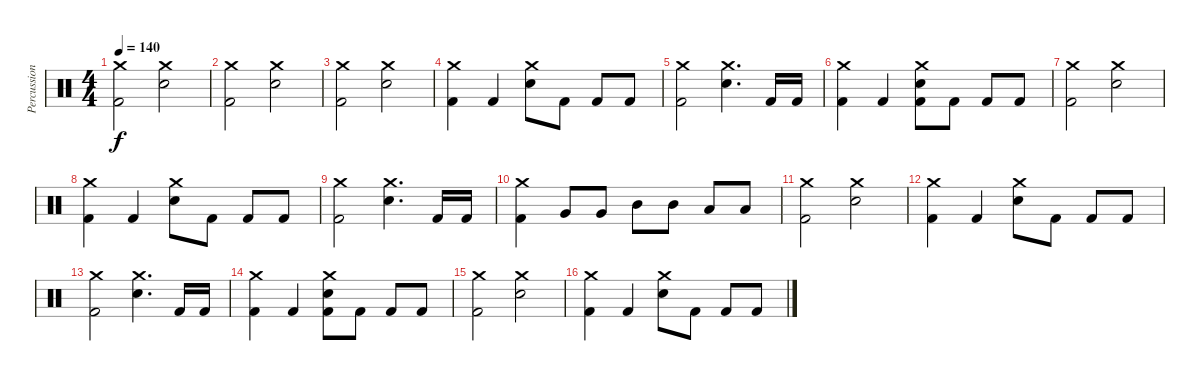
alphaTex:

\track ("Percussion" "Percussion") {instrument percussion}
\staff {score}
\articulation defaults
\ts (4 4)
\tempo 140
\clef neutral
\ks c
("Crash medium (hit)" "Kick (hit) 2").2{dy f} ("Crash medium (hit)" "Electric Snare (hit)").2 |
("Crash medium (hit)" "Kick (hit) 2").2 ("Crash medium (hit)" "Electric Snare (hit)").2 |
("Crash medium (hit)" "Kick (hit) 2").2 ("Crash medium (hit)" "Electric Snare (hit)").2 |
("Crash medium (hit)" "Kick (hit) 2").4 "Kick (hit) 2".4 ("Crash medium (hit)" "Electric Snare (hit)").8 "Kick (hit) 2".8 "Kick (hit) 2".8 "Kick (hit) 2".8 |
("Crash medium (hit)" "Kick (hit) 2").2 ("Crash medium (hit)" "Electric Snare (hit)").4{d} "Kick (hit) 2".16 "Kick (hit) 2".16 |
("Crash medium (hit)" "Kick (hit) 2").4 "Kick (hit) 2".4 ("Crash medium (hit)" "Electric Snare (hit)" "Kick (hit) 2").8 "Kick (hit) 2".8 "Kick (hit) 2".8 "Kick (hit) 2".8 |
("Crash medium (hit)" "Kick (hit) 2").2 ("Crash medium (hit)" "Electric Snare (hit)").2 |
("Crash medium (hit)" "Kick (hit) 2").4 "Kick (hit) 2".4 ("Crash medium (hit)" "Electric Snare (hit)").8 "Kick (hit) 2".8 "Kick (hit) 2".8 "Kick (hit) 2".8 |
("Crash medium (hit)" "Kick (hit) 2").2 ("Crash medium (hit)" "Electric Snare (hit)").4{d} "Kick (hit) 2".16 "Kick (hit) 2".16 |
("Crash medium (hit)" "Kick (hit) 2").4 "Very Low Tom (hit)".8 "Very Low Tom (hit)".8 "Mid Tom (hit)".8 "Mid Tom (hit)".8 "Low Tom (hit)".8 "Low Tom (hit)".8 |
("Crash medium (hit)" "Kick (hit) 2").2 ("Crash medium (hit)" "Electric Snare (hit)").2 |
("Crash medium (hit)" "Kick (hit) 2").4 "Kick (hit) 2".4 ("Crash medium (hit)" "Electric Snare (hit)").8 "Kick (hit) 2".8 "Kick (hit) 2".8 "Kick (hit) 2".8 |
("Crash medium (hit)" "Kick (hit) 2").2 ("Crash medium (hit)" "Electric Snare (hit)").4{d} "Kick (hit) 2".16 "Kick (hit) 2".16 |
("Crash medium (hit)" "Kick (hit) 2").4 "Kick (hit) 2".4 ("Crash medium (hit)" "Electric Snare (hit)" "Kick (hit) 2").8 "Kick (hit) 2".8 "Kick (hit) 2".8 "Kick (hit) 2".8 |
("Crash medium (hit)" "Kick (hit) 2").2 ("Crash medium (hit)" "Electric Snare (hit)").2 |
("Crash medium (hit)" "Kick (hit) 2").4 "Kick (hit) 2".4 ("Crash medium (hit)" "Electric Snare (hit)").8 "Kick (hit) 2".8 "Kick (hit) 2".8 "Kick (hit) 2".8
